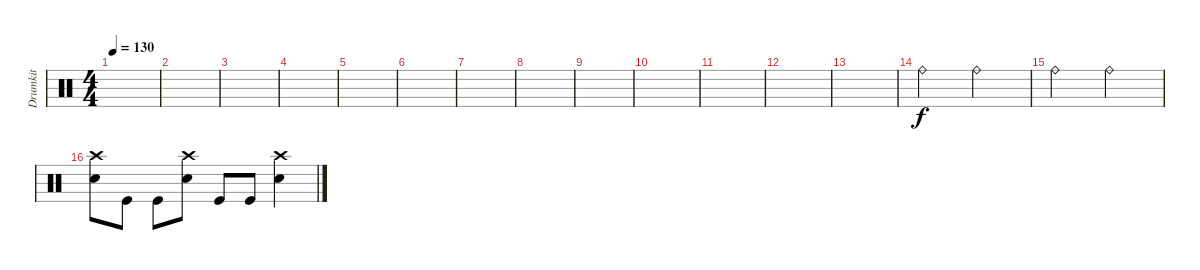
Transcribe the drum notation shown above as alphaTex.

\track ("Drumkit" "Drumkit") {instrument percussion}
\staff {score}
\articulation defaults
\ts (4 4)
\tempo 130
\clef neutral
\ks c
|
|
|
|
|
|
|
|
|
|
|
|
|
"Ride (bell)".2 "Ride (bell)".2 |
"Ride (bell)".2 "Ride (bell)".2 |
("Snare (hit) 2" "Crash high (hit)").8 "Kick (hit)".8 "Kick (hit)".8 ("Snare (hit) 2" "Crash high (hit)").8 "Kick (hit)".8 "Kick (hit)".8 ("Snare (hit) 2" "Crash high (hit)").4
